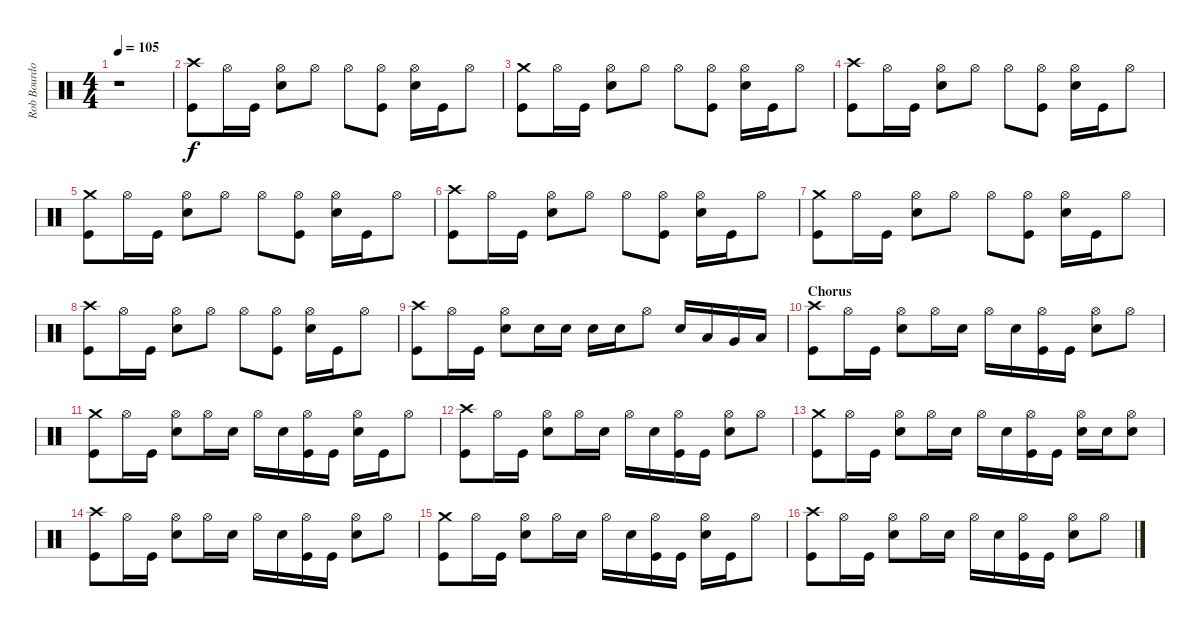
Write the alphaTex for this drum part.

\track ("Rob Bourdon - Drums" "Rob Bourdo") {instrument percussion}
\staff {score}
\articulation defaults
\ts (4 4)
\tempo 105
\clef neutral
\ks c
r.1{dy f} |
("Crash high (hit)" "Kick (hit)").8 "Hi-Hat (open)".16 "Kick (hit)".16 ("Hi-Hat (open)" "Electric Snare (hit)").8 "Hi-Hat (open)".8 "Hi-Hat (open)".8 ("Hi-Hat (open)" "Kick (hit)").8 ("Hi-Hat (open)" "Electric Snare (hit)").16 "Kick (hit)".16 "Hi-Hat (open)".8 |
("Crash medium (hit)" "Kick (hit)").8 "Hi-Hat (open)".16 "Kick (hit)".16 ("Hi-Hat (open)" "Electric Snare (hit)").8 "Hi-Hat (open)".8 "Hi-Hat (open)".8 ("Hi-Hat (open)" "Kick (hit)").8 ("Hi-Hat (open)" "Electric Snare (hit)").16 "Kick (hit)".16 "Hi-Hat (open)".8 |
("Crash high (hit)" "Kick (hit)").8 "Hi-Hat (open)".16 "Kick (hit)".16 ("Hi-Hat (open)" "Electric Snare (hit)").8 "Hi-Hat (open)".8 "Hi-Hat (open)".8 ("Hi-Hat (open)" "Kick (hit)").8 ("Hi-Hat (open)" "Electric Snare (hit)").16 "Kick (hit)".16 "Hi-Hat (open)".8 |
("Crash medium (hit)" "Kick (hit)").8 "Hi-Hat (open)".16 "Kick (hit)".16 ("Hi-Hat (open)" "Electric Snare (hit)").8 "Hi-Hat (open)".8 "Hi-Hat (open)".8 ("Hi-Hat (open)" "Kick (hit)").8 ("Hi-Hat (open)" "Electric Snare (hit)").16 "Kick (hit)".16 "Hi-Hat (open)".8 |
("Crash high (hit)" "Kick (hit)").8 "Hi-Hat (open)".16 "Kick (hit)".16 ("Hi-Hat (open)" "Electric Snare (hit)").8 "Hi-Hat (open)".8 "Hi-Hat (open)".8 ("Hi-Hat (open)" "Kick (hit)").8 ("Hi-Hat (open)" "Electric Snare (hit)").16 "Kick (hit)".16 "Hi-Hat (open)".8 |
("Crash medium (hit)" "Kick (hit)").8 "Hi-Hat (open)".16 "Kick (hit)".16 ("Hi-Hat (open)" "Electric Snare (hit)").8 "Hi-Hat (open)".8 "Hi-Hat (open)".8 ("Hi-Hat (open)" "Kick (hit)").8 ("Hi-Hat (open)" "Electric Snare (hit)").16 "Kick (hit)".16 "Hi-Hat (open)".8 |
("Crash high (hit)" "Kick (hit)").8 "Hi-Hat (open)".16 "Kick (hit)".16 ("Hi-Hat (open)" "Electric Snare (hit)").8 "Hi-Hat (open)".8 "Hi-Hat (open)".8 ("Hi-Hat (open)" "Kick (hit)").8 ("Hi-Hat (open)" "Electric Snare (hit)").16 "Kick (hit)".16 "Hi-Hat (open)".8 |
("Crash high (hit)" "Kick (hit)").8 "Hi-Hat (open)".16 "Kick (hit)".16 ("Hi-Hat (open)" "Electric Snare (hit)").8 "Electric Snare (hit)".16 "Electric Snare (hit)".16 "Electric Snare (hit)".16 "Electric Snare (hit)".16 "Hi-Hat (open)".8 "Electric Snare (hit)".16 "Low Tom (hit)".16 "Very Low Tom (hit)".16 "Low Floor Tom (hit)".16 |
\section ("" "Chorus")
("Crash high (hit)" "Kick (hit)").8 "Hi-Hat (open)".16 "Kick (hit)".16 ("Hi-Hat (open)" "Electric Snare (hit)").8 "Hi-Hat (open)".16 "Electric Snare (hit)".16 "Hi-Hat (open)".16 "Electric Snare (hit)".16 ("Hi-Hat (open)" "Kick (hit)").16 "Kick (hit)".16 ("Hi-Hat (open)" "Electric Snare (hit)").8 "Hi-Hat (open)".8 |
("Crash medium (hit)" "Kick (hit)").8 "Hi-Hat (open)".16 "Kick (hit)".16 ("Hi-Hat (open)" "Electric Snare (hit)").8 "Hi-Hat (open)".16 "Electric Snare (hit)".16 "Hi-Hat (open)".16 "Electric Snare (hit)".16 ("Hi-Hat (open)" "Kick (hit)").16 "Kick (hit)".16 ("Hi-Hat (open)" "Electric Snare (hit)").16 "Kick (hit)".16 "Hi-Hat (open)".8 |
("Crash high (hit)" "Kick (hit)").8 "Hi-Hat (open)".16 "Kick (hit)".16 ("Hi-Hat (open)" "Electric Snare (hit)").8 "Hi-Hat (open)".16 "Electric Snare (hit)".16 "Hi-Hat (open)".16 "Electric Snare (hit)".16 ("Hi-Hat (open)" "Kick (hit)").16 "Kick (hit)".16 ("Hi-Hat (open)" "Electric Snare (hit)").8 "Hi-Hat (open)".8 |
("Crash medium (hit)" "Kick (hit)").8 "Hi-Hat (open)".16 "Kick (hit)".16 ("Hi-Hat (open)" "Electric Snare (hit)").8 "Hi-Hat (open)".16 "Electric Snare (hit)".16 "Hi-Hat (open)".16 "Electric Snare (hit)".16 ("Hi-Hat (open)" "Kick (hit)").16 "Kick (hit)".16 ("Hi-Hat (open)" "Electric Snare (hit)").16 "Electric Snare (hit)".16 ("Hi-Hat (open)" "Electric Snare (hit)").8 |
("Crash high (hit)" "Kick (hit)").8 "Hi-Hat (open)".16 "Kick (hit)".16 ("Hi-Hat (open)" "Electric Snare (hit)").8 "Hi-Hat (open)".16 "Electric Snare (hit)".16 "Hi-Hat (open)".16 "Electric Snare (hit)".16 ("Hi-Hat (open)" "Kick (hit)").16 "Kick (hit)".16 ("Hi-Hat (open)" "Electric Snare (hit)").8 "Hi-Hat (open)".8 |
("Crash medium (hit)" "Kick (hit)").8 "Hi-Hat (open)".16 "Kick (hit)".16 ("Hi-Hat (open)" "Electric Snare (hit)").8 "Hi-Hat (open)".16 "Electric Snare (hit)".16 "Hi-Hat (open)".16 "Electric Snare (hit)".16 ("Hi-Hat (open)" "Kick (hit)").16 "Kick (hit)".16 ("Hi-Hat (open)" "Electric Snare (hit)").16 "Kick (hit)".16 "Hi-Hat (open)".8 |
("Crash high (hit)" "Kick (hit)").8 "Hi-Hat (open)".16 "Kick (hit)".16 ("Hi-Hat (open)" "Electric Snare (hit)").8 "Hi-Hat (open)".16 "Electric Snare (hit)".16 "Hi-Hat (open)".16 "Electric Snare (hit)".16 ("Hi-Hat (open)" "Kick (hit)").16 "Kick (hit)".16 ("Hi-Hat (open)" "Electric Snare (hit)").8 "Hi-Hat (open)".8
